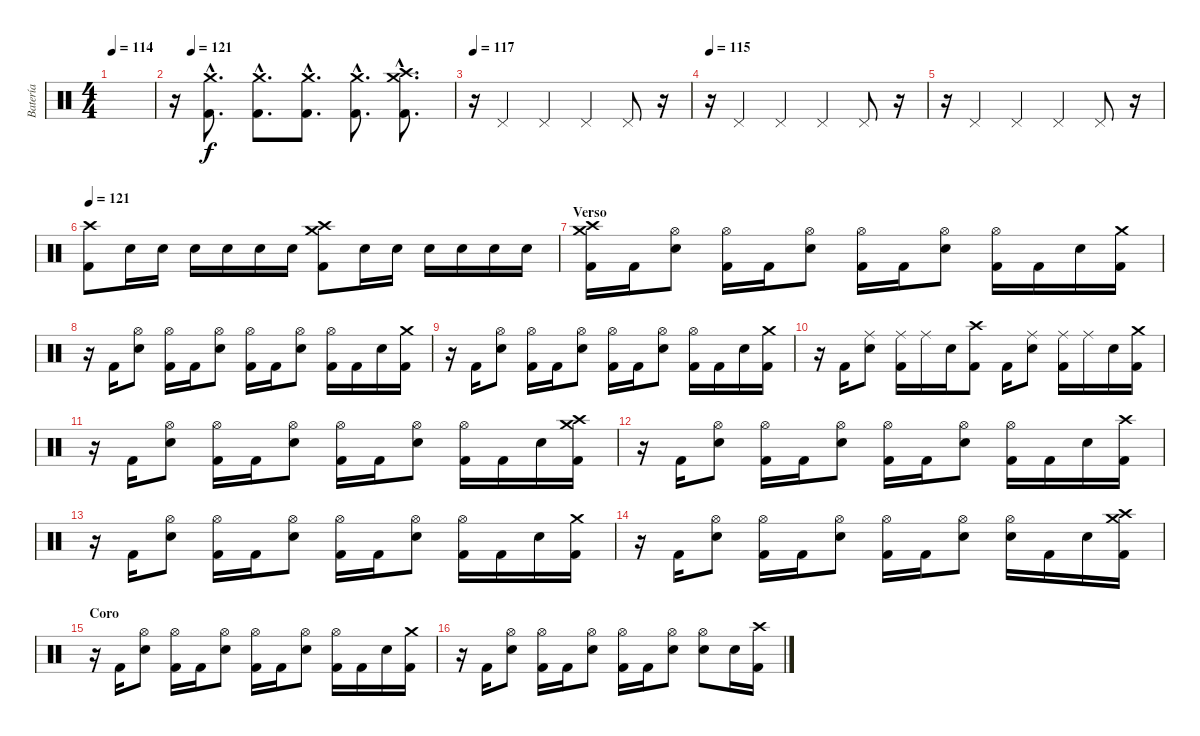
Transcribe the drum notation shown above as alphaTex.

\track ("Batería" "Batería") {instrument percussion}
\staff {score}
\articulation defaults
\ts (4 4)
\tempo 114
\clef neutral
\ks c
|
\tempo (121 0.0625)
r.16 ("Crash medium (hit)"{hac} "Kick (hit) 2"{hac}).8{d dy f} ("Crash medium (hit)"{hac} "Kick (hit) 2"{hac}).8{d} ("Crash medium (hit)"{hac} "Kick (hit) 2"{hac}).8{d} ("Crash medium (hit)"{hac} "Kick (hit) 2"{hac}).8{d} ("Crash medium (hit)"{hac} "Crash high (hit)"{hac} "Kick (hit) 2"{hac}).8{d} |
\tempo 117
r.16 "Pedal Hi-Hat (hit)".4 "Pedal Hi-Hat (hit)".4 "Pedal Hi-Hat (hit)".4 "Pedal Hi-Hat (hit)".8 r.16 |
\tempo 115
r.16 "Pedal Hi-Hat (hit)".4 "Pedal Hi-Hat (hit)".4 "Pedal Hi-Hat (hit)".4 "Pedal Hi-Hat (hit)".8 r.16 |
r.16 "Pedal Hi-Hat (hit)".4 "Pedal Hi-Hat (hit)".4 "Pedal Hi-Hat (hit)".4 "Pedal Hi-Hat (hit)".8 r.16 |
\tempo 121
("Crash high (hit)" "Kick (hit) 2").8 "Electric Snare (hit)".16 "Electric Snare (hit)".16 "Electric Snare (hit)".16 "Electric Snare (hit)".16 "Electric Snare (hit)".16 "Electric Snare (hit)".16 ("Crash medium (hit)" "Crash high (hit)" "Kick (hit) 2").8 "Electric Snare (hit)".16 "Electric Snare (hit)".16 "Electric Snare (hit)".16 "Electric Snare (hit)".16 "Electric Snare (hit)".16 "Electric Snare (hit)".16 |
\section ("" "Verso")
("Crash medium (hit)" "Crash high (hit)" "Kick (hit) 2").16 "Kick (hit) 2".16 ("Hi-Hat (open)" "Electric Snare (hit)").8 ("Hi-Hat (open)" "Kick (hit) 2").16 "Kick (hit) 2".16 ("Hi-Hat (open)" "Electric Snare (hit)").8 ("Hi-Hat (open)" "Kick (hit) 2").16 "Kick (hit) 2".16 ("Hi-Hat (open)" "Electric Snare (hit)").8 ("Hi-Hat (open)" "Kick (hit) 2").16 "Kick (hit) 2".16 "Electric Snare (hit)".16 ("Crash medium (hit)" "Kick (hit) 2").16 |
r.16 "Kick (hit) 2".16 ("Hi-Hat (open)" "Electric Snare (hit)").8 ("Hi-Hat (open)" "Kick (hit) 2").16 "Kick (hit) 2".16 ("Hi-Hat (open)" "Electric Snare (hit)").8 ("Hi-Hat (open)" "Kick (hit) 2").16 "Kick (hit) 2".16 ("Hi-Hat (open)" "Electric Snare (hit)").8 ("Hi-Hat (open)" "Kick (hit) 2").16 "Kick (hit) 2".16 "Electric Snare (hit)".16 ("Crash medium (hit)" "Kick (hit) 2").16 |
r.16 "Kick (hit) 2".16 ("Hi-Hat (open)" "Electric Snare (hit)").8 ("Hi-Hat (open)" "Kick (hit) 2").16 "Kick (hit) 2".16 ("Hi-Hat (open)" "Electric Snare (hit)").8 ("Hi-Hat (open)" "Kick (hit) 2").16 "Kick (hit) 2".16 ("Hi-Hat (open)" "Electric Snare (hit)").8 ("Hi-Hat (open)" "Kick (hit) 2").16 "Kick (hit) 2".16 "Electric Snare (hit)".16 ("Crash medium (hit)" "Kick (hit) 2").16 |
r.16 "Kick (hit) 2".16 ("Ride (middle)" "Electric Snare (hit)").8 ("Ride (middle)" "Kick (hit) 2").16 "Ride (middle)".16 "Electric Snare (hit)".16 ("Crash high (hit)" "Kick (hit) 2").8 "Kick (hit) 2".16 ("Ride (middle)" "Electric Snare (hit)").8 ("Ride (middle)" "Kick (hit) 2").16 "Ride (middle)".16 "Electric Snare (hit)".16 ("Crash medium (hit)" "Kick (hit) 2").16 |
r.16 "Kick (hit) 2".16 ("Hi-Hat (open)" "Electric Snare (hit)").8 ("Hi-Hat (open)" "Kick (hit) 2").16 "Kick (hit) 2".16 ("Hi-Hat (open)" "Electric Snare (hit)").8 ("Hi-Hat (open)" "Kick (hit) 2").16 "Kick (hit) 2".16 ("Hi-Hat (open)" "Electric Snare (hit)").8 ("Hi-Hat (open)" "Kick (hit) 2").16 "Kick (hit) 2".16 "Electric Snare (hit)".16 ("Crash medium (hit)" "Crash high (hit)" "Kick (hit) 2").16 |
r.16 "Kick (hit) 2".16 ("Hi-Hat (open)" "Electric Snare (hit)").8 ("Hi-Hat (open)" "Kick (hit) 2").16 "Kick (hit) 2".16 ("Hi-Hat (open)" "Electric Snare (hit)").8 ("Hi-Hat (open)" "Kick (hit) 2").16 "Kick (hit) 2".16 ("Hi-Hat (open)" "Electric Snare (hit)").8 ("Hi-Hat (open)" "Kick (hit) 2").16 "Kick (hit) 2".16 "Electric Snare (hit)".16 ("Crash high (hit)" "Kick (hit) 2").16 |
r.16 "Kick (hit) 2".16 ("Hi-Hat (open)" "Electric Snare (hit)").8 ("Hi-Hat (open)" "Kick (hit) 2").16 "Kick (hit) 2".16 ("Hi-Hat (open)" "Electric Snare (hit)").8 ("Hi-Hat (open)" "Kick (hit) 2").16 "Kick (hit) 2".16 ("Hi-Hat (open)" "Electric Snare (hit)").8 ("Hi-Hat (open)" "Kick (hit) 2").16 "Kick (hit) 2".16 "Electric Snare (hit)".16 ("Crash medium (hit)" "Kick (hit) 2").16 |
r.16 "Kick (hit) 2".16 ("Hi-Hat (open)" "Electric Snare (hit)").8 ("Hi-Hat (open)" "Kick (hit) 2").16 "Kick (hit) 2".16 ("Hi-Hat (open)" "Electric Snare (hit)").8 ("Hi-Hat (open)" "Kick (hit) 2").16 "Kick (hit) 2".16 ("Hi-Hat (open)" "Electric Snare (hit)").8 ("Hi-Hat (open)" "Electric Snare (hit)").16 "Kick (hit) 2".16 "Electric Snare (hit)".16 ("Crash medium (hit)" "Crash high (hit)" "Kick (hit) 2").16 |
\section ("" "Coro")
r.16 "Kick (hit) 2".16 ("Hi-Hat (open)" "Electric Snare (hit)").8 ("Hi-Hat (open)" "Kick (hit) 2").16 "Kick (hit) 2".16 ("Hi-Hat (open)" "Electric Snare (hit)").8 ("Hi-Hat (open)" "Kick (hit) 2").16 "Kick (hit) 2".16 ("Hi-Hat (open)" "Electric Snare (hit)").8 ("Hi-Hat (open)" "Kick (hit) 2").16 "Kick (hit) 2".16 "Electric Snare (hit)".16 ("Crash medium (hit)" "Kick (hit) 2").16 |
r.16 "Kick (hit) 2".16 ("Hi-Hat (open)" "Electric Snare (hit)").8 ("Hi-Hat (open)" "Kick (hit) 2").16 "Kick (hit) 2".16 ("Hi-Hat (open)" "Electric Snare (hit)").8 ("Hi-Hat (open)" "Kick (hit) 2").16 "Kick (hit) 2".16 ("Hi-Hat (open)" "Electric Snare (hit)").8 ("Hi-Hat (open)" "Electric Snare (hit)").8 "Electric Snare (hit)".16 ("Crash high (hit)" "Kick (hit) 2").16
